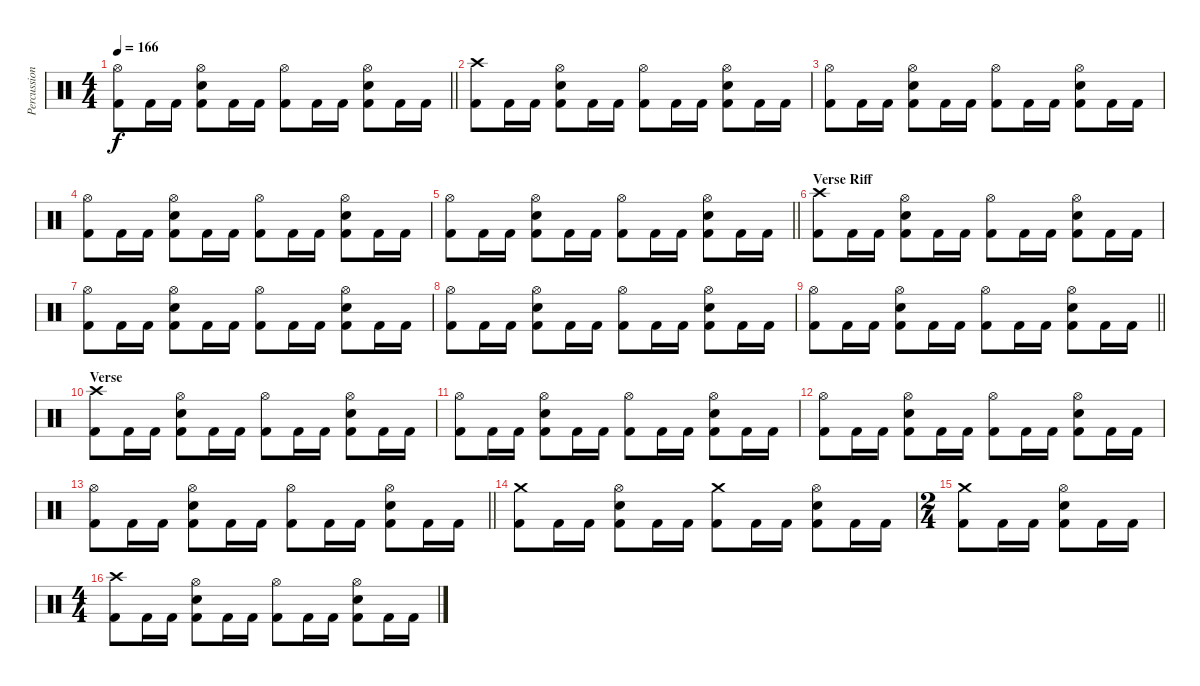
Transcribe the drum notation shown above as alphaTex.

\track ("Percussion" "Percussion") {instrument percussion}
\staff {score}
\articulation defaults
\ts (4 4)
\tempo 166
\clef neutral
\barLineRight lightlight
\ks c
("Hi-Hat (open)" "Kick (hit) 2").8{dy f} "Kick (hit) 2".16 "Kick (hit) 2".16 ("Hi-Hat (open)" "Snare (hit) 2" "Kick (hit) 2").8 "Kick (hit) 2".16 "Kick (hit) 2".16 ("Hi-Hat (open)" "Kick (hit) 2").8 "Kick (hit) 2".16 "Kick (hit) 2".16 ("Hi-Hat (open)" "Snare (hit) 2" "Kick (hit) 2").8 "Kick (hit) 2".16 "Kick (hit) 2".16 |
("Crash high (hit)" "Kick (hit) 2").8 "Kick (hit) 2".16 "Kick (hit) 2".16 ("Hi-Hat (open)" "Snare (hit) 2" "Kick (hit) 2").8 "Kick (hit) 2".16 "Kick (hit) 2".16 ("Hi-Hat (open)" "Kick (hit) 2").8 "Kick (hit) 2".16 "Kick (hit) 2".16 ("Hi-Hat (open)" "Snare (hit) 2" "Kick (hit) 2").8 "Kick (hit) 2".16 "Kick (hit) 2".16 |
("Hi-Hat (open)" "Kick (hit) 2").8 "Kick (hit) 2".16 "Kick (hit) 2".16 ("Hi-Hat (open)" "Snare (hit) 2" "Kick (hit) 2").8 "Kick (hit) 2".16 "Kick (hit) 2".16 ("Hi-Hat (open)" "Kick (hit) 2").8 "Kick (hit) 2".16 "Kick (hit) 2".16 ("Hi-Hat (open)" "Snare (hit) 2" "Kick (hit) 2").8 "Kick (hit) 2".16 "Kick (hit) 2".16 |
("Hi-Hat (open)" "Kick (hit) 2").8 "Kick (hit) 2".16 "Kick (hit) 2".16 ("Hi-Hat (open)" "Snare (hit) 2" "Kick (hit) 2").8 "Kick (hit) 2".16 "Kick (hit) 2".16 ("Hi-Hat (open)" "Kick (hit) 2").8 "Kick (hit) 2".16 "Kick (hit) 2".16 ("Hi-Hat (open)" "Snare (hit) 2" "Kick (hit) 2").8 "Kick (hit) 2".16 "Kick (hit) 2".16 |
\barLineRight lightlight
("Hi-Hat (open)" "Kick (hit) 2").8 "Kick (hit) 2".16 "Kick (hit) 2".16 ("Hi-Hat (open)" "Snare (hit) 2" "Kick (hit) 2").8 "Kick (hit) 2".16 "Kick (hit) 2".16 ("Hi-Hat (open)" "Kick (hit) 2").8 "Kick (hit) 2".16 "Kick (hit) 2".16 ("Hi-Hat (open)" "Snare (hit) 2" "Kick (hit) 2").8 "Kick (hit) 2".16 "Kick (hit) 2".16 |
\section ("" "Verse Riff")
("Crash high (hit)" "Kick (hit) 2").8 "Kick (hit) 2".16 "Kick (hit) 2".16 ("Hi-Hat (open)" "Snare (hit) 2" "Kick (hit) 2").8 "Kick (hit) 2".16 "Kick (hit) 2".16 ("Hi-Hat (open)" "Kick (hit) 2").8 "Kick (hit) 2".16 "Kick (hit) 2".16 ("Hi-Hat (open)" "Snare (hit) 2" "Kick (hit) 2").8 "Kick (hit) 2".16 "Kick (hit) 2".16 |
("Hi-Hat (open)" "Kick (hit) 2").8 "Kick (hit) 2".16 "Kick (hit) 2".16 ("Hi-Hat (open)" "Snare (hit) 2" "Kick (hit) 2").8 "Kick (hit) 2".16 "Kick (hit) 2".16 ("Hi-Hat (open)" "Kick (hit) 2").8 "Kick (hit) 2".16 "Kick (hit) 2".16 ("Hi-Hat (open)" "Snare (hit) 2" "Kick (hit) 2").8 "Kick (hit) 2".16 "Kick (hit) 2".16 |
("Hi-Hat (open)" "Kick (hit) 2").8 "Kick (hit) 2".16 "Kick (hit) 2".16 ("Hi-Hat (open)" "Snare (hit) 2" "Kick (hit) 2").8 "Kick (hit) 2".16 "Kick (hit) 2".16 ("Hi-Hat (open)" "Kick (hit) 2").8 "Kick (hit) 2".16 "Kick (hit) 2".16 ("Hi-Hat (open)" "Snare (hit) 2" "Kick (hit) 2").8 "Kick (hit) 2".16 "Kick (hit) 2".16 |
\barLineRight lightlight
("Hi-Hat (open)" "Kick (hit) 2").8 "Kick (hit) 2".16 "Kick (hit) 2".16 ("Hi-Hat (open)" "Snare (hit) 2" "Kick (hit) 2").8 "Kick (hit) 2".16 "Kick (hit) 2".16 ("Hi-Hat (open)" "Kick (hit) 2").8 "Kick (hit) 2".16 "Kick (hit) 2".16 ("Hi-Hat (open)" "Snare (hit) 2" "Kick (hit) 2").8 "Kick (hit) 2".16 "Kick (hit) 2".16 |
\section ("" "Verse")
("Crash high (hit)" "Kick (hit) 2").8 "Kick (hit) 2".16 "Kick (hit) 2".16 ("Hi-Hat (open)" "Snare (hit) 2" "Kick (hit) 2").8 "Kick (hit) 2".16 "Kick (hit) 2".16 ("Hi-Hat (open)" "Kick (hit) 2").8 "Kick (hit) 2".16 "Kick (hit) 2".16 ("Hi-Hat (open)" "Snare (hit) 2" "Kick (hit) 2").8 "Kick (hit) 2".16 "Kick (hit) 2".16 |
("Hi-Hat (open)" "Kick (hit) 2").8 "Kick (hit) 2".16 "Kick (hit) 2".16 ("Hi-Hat (open)" "Snare (hit) 2" "Kick (hit) 2").8 "Kick (hit) 2".16 "Kick (hit) 2".16 ("Hi-Hat (open)" "Kick (hit) 2").8 "Kick (hit) 2".16 "Kick (hit) 2".16 ("Hi-Hat (open)" "Snare (hit) 2" "Kick (hit) 2").8 "Kick (hit) 2".16 "Kick (hit) 2".16 |
("Hi-Hat (open)" "Kick (hit) 2").8 "Kick (hit) 2".16 "Kick (hit) 2".16 ("Hi-Hat (open)" "Snare (hit) 2" "Kick (hit) 2").8 "Kick (hit) 2".16 "Kick (hit) 2".16 ("Hi-Hat (open)" "Kick (hit) 2").8 "Kick (hit) 2".16 "Kick (hit) 2".16 ("Hi-Hat (open)" "Snare (hit) 2" "Kick (hit) 2").8 "Kick (hit) 2".16 "Kick (hit) 2".16 |
\barLineRight lightlight
("Hi-Hat (open)" "Kick (hit) 2").8 "Kick (hit) 2".16 "Kick (hit) 2".16 ("Hi-Hat (open)" "Snare (hit) 2" "Kick (hit) 2").8 "Kick (hit) 2".16 "Kick (hit) 2".16 ("Hi-Hat (open)" "Kick (hit) 2").8 "Kick (hit) 2".16 "Kick (hit) 2".16 ("Hi-Hat (open)" "Snare (hit) 2" "Kick (hit) 2").8 "Kick (hit) 2".16 "Kick (hit) 2".16 |
("Crash medium (hit)" "Kick (hit) 2").8 "Kick (hit) 2".16 "Kick (hit) 2".16 ("Hi-Hat (open)" "Snare (hit) 2" "Kick (hit) 2").8 "Kick (hit) 2".16 "Kick (hit) 2".16 ("Crash medium (hit)" "Kick (hit) 2").8 "Kick (hit) 2".16 "Kick (hit) 2".16 ("Hi-Hat (open)" "Snare (hit) 2" "Kick (hit) 2").8 "Kick (hit) 2".16 "Kick (hit) 2".16 |
\ts (2 4)
("Crash medium (hit)" "Kick (hit) 2").8 "Kick (hit) 2".16 "Kick (hit) 2".16 ("Hi-Hat (open)" "Snare (hit) 2" "Kick (hit) 2").8 "Kick (hit) 2".16 "Kick (hit) 2".16 |
\ts (4 4)
("Crash high (hit)" "Kick (hit) 2").8 "Kick (hit) 2".16 "Kick (hit) 2".16 ("Hi-Hat (open)" "Snare (hit) 2" "Kick (hit) 2").8 "Kick (hit) 2".16 "Kick (hit) 2".16 ("Hi-Hat (open)" "Kick (hit) 2").8 "Kick (hit) 2".16 "Kick (hit) 2".16 ("Hi-Hat (open)" "Snare (hit) 2" "Kick (hit) 2").8 "Kick (hit) 2".16 "Kick (hit) 2".16
